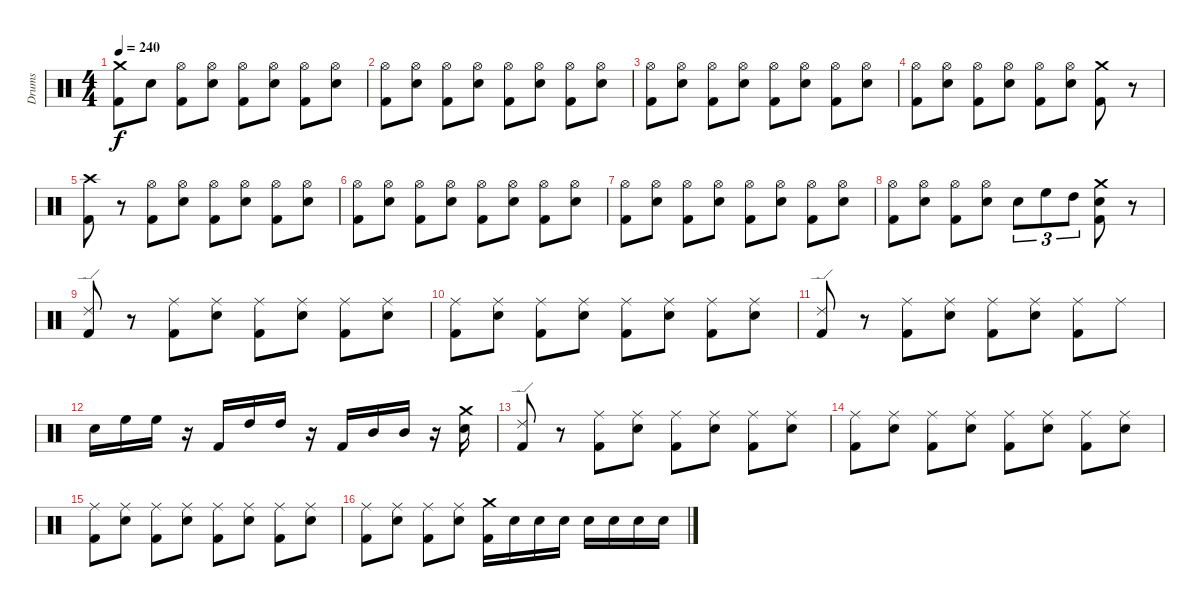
\track ("Drums" "Drums") {instrument percussion}
\staff {score}
\articulation defaults
\ts (4 4)
\tempo 240
\clef neutral
\ks c
("Crash medium (hit)" "Kick (hit) 2").8{dy f} "Snare (hit) 2".8 ("Hi-Hat (open)" "Kick (hit) 2").8 ("Hi-Hat (open)" "Snare (hit) 2").8 ("Hi-Hat (open)" "Kick (hit) 2").8 ("Hi-Hat (open)" "Snare (hit) 2").8 ("Hi-Hat (open)" "Kick (hit) 2").8 ("Hi-Hat (open)" "Snare (hit) 2").8 |
("Hi-Hat (open)" "Kick (hit) 2").8 ("Hi-Hat (open)" "Snare (hit) 2").8 ("Hi-Hat (open)" "Kick (hit) 2").8 ("Hi-Hat (open)" "Snare (hit) 2").8 ("Hi-Hat (open)" "Kick (hit) 2").8 ("Hi-Hat (open)" "Snare (hit) 2").8 ("Hi-Hat (open)" "Kick (hit) 2").8 ("Hi-Hat (open)" "Snare (hit) 2").8 |
("Hi-Hat (open)" "Kick (hit) 2").8 ("Hi-Hat (open)" "Snare (hit) 2").8 ("Hi-Hat (open)" "Kick (hit) 2").8 ("Hi-Hat (open)" "Snare (hit) 2").8 ("Hi-Hat (open)" "Kick (hit) 2").8 ("Hi-Hat (open)" "Snare (hit) 2").8 ("Hi-Hat (open)" "Kick (hit) 2").8 ("Hi-Hat (open)" "Snare (hit) 2").8 |
("Hi-Hat (open)" "Kick (hit) 2").8 ("Hi-Hat (open)" "Snare (hit) 2").8 ("Hi-Hat (open)" "Kick (hit) 2").8 ("Hi-Hat (open)" "Snare (hit) 2").8 ("Hi-Hat (open)" "Kick (hit) 2").8 ("Hi-Hat (open)" "Snare (hit) 2").8 ("Crash medium (hit)" "Kick (hit) 2").8 r.8 |
("Crash high (hit)" "Kick (hit) 2").8 r.8 ("Hi-Hat (open)" "Kick (hit) 2").8 ("Hi-Hat (open)" "Snare (hit) 2").8 ("Hi-Hat (open)" "Kick (hit) 2").8 ("Hi-Hat (open)" "Snare (hit) 2").8 ("Hi-Hat (open)" "Kick (hit) 2").8 ("Hi-Hat (open)" "Snare (hit) 2").8 |
("Hi-Hat (open)" "Kick (hit) 2").8 ("Hi-Hat (open)" "Snare (hit) 2").8 ("Hi-Hat (open)" "Kick (hit) 2").8 ("Hi-Hat (open)" "Snare (hit) 2").8 ("Hi-Hat (open)" "Kick (hit) 2").8 ("Hi-Hat (open)" "Snare (hit) 2").8 ("Hi-Hat (open)" "Kick (hit) 2").8 ("Hi-Hat (open)" "Snare (hit) 2").8 |
("Hi-Hat (open)" "Kick (hit) 2").8 ("Hi-Hat (open)" "Snare (hit) 2").8 ("Hi-Hat (open)" "Kick (hit) 2").8 ("Hi-Hat (open)" "Snare (hit) 2").8 ("Hi-Hat (open)" "Kick (hit) 2").8 ("Hi-Hat (open)" "Snare (hit) 2").8 ("Hi-Hat (open)" "Kick (hit) 2").8 ("Hi-Hat (open)" "Snare (hit) 2").8 |
("Hi-Hat (open)" "Kick (hit) 2").8 ("Hi-Hat (open)" "Snare (hit) 2").8 ("Hi-Hat (open)" "Kick (hit) 2").8 ("Hi-Hat (open)" "Snare (hit) 2").8 "Snare (hit) 2".8{tu (3 2)} "High Floor Tom (hit)".8{tu (3 2)} "High Tom (hit)".8{tu (3 2)} ("Crash medium (hit)" "Snare (hit) 2" "Kick (hit) 2").8 r.8 |
("Ride (edge) 2" "Kick (hit) 2").8 r.8 ("Ride (middle)" "Kick (hit) 2").8 ("Ride (middle)" "Snare (hit) 2").8 ("Ride (middle)" "Kick (hit) 2").8 ("Ride (middle)" "Snare (hit) 2").8 ("Ride (middle)" "Kick (hit) 2").8 ("Ride (middle)" "Snare (hit) 2").8 |
("Ride (middle)" "Kick (hit) 2").8 ("Ride (middle)" "Snare (hit) 2").8 ("Ride (middle)" "Kick (hit) 2").8 ("Ride (middle)" "Snare (hit) 2").8 ("Ride (middle)" "Kick (hit) 2").8 ("Ride (middle)" "Snare (hit) 2").8 ("Ride (middle)" "Kick (hit) 2").8 ("Ride (middle)" "Snare (hit) 2").8 |
("Ride (edge) 2" "Kick (hit) 2").8 r.8 ("Ride (middle)" "Kick (hit) 2").8 ("Ride (middle)" "Snare (hit) 2").8 ("Ride (middle)" "Kick (hit) 2").8 ("Ride (middle)" "Snare (hit) 2").8 ("Ride (middle)" "Kick (hit) 2").8 "Ride (middle)".8 |
"Snare (hit) 2".16 "High Floor Tom (hit)".16 "High Floor Tom (hit)".16 r.16 "Kick (hit) 2".16 "High Tom (hit)".16 "High Tom (hit)".16 r.16 "Kick (hit) 2".16 "Mid Tom (hit)".16 "Mid Tom (hit)".16 r.16 ("Crash medium (hit)" "Snare (hit) 2").16 |
("Ride (edge) 2" "Kick (hit) 2").8 r.8 ("Ride (middle)" "Kick (hit) 2").8 ("Ride (middle)" "Snare (hit) 2").8 ("Ride (middle)" "Kick (hit) 2").8 ("Ride (middle)" "Snare (hit) 2").8 ("Ride (middle)" "Kick (hit) 2").8 ("Ride (middle)" "Snare (hit) 2").8 |
("Ride (middle)" "Kick (hit) 2").8 ("Ride (middle)" "Snare (hit) 2").8 ("Ride (middle)" "Kick (hit) 2").8 ("Ride (middle)" "Snare (hit) 2").8 ("Ride (middle)" "Kick (hit) 2").8 ("Ride (middle)" "Snare (hit) 2").8 ("Ride (middle)" "Kick (hit) 2").8 ("Ride (middle)" "Snare (hit) 2").8 |
("Ride (middle)" "Kick (hit) 2").8 ("Ride (middle)" "Snare (hit) 2").8 ("Ride (middle)" "Kick (hit) 2").8 ("Ride (middle)" "Snare (hit) 2").8 ("Ride (middle)" "Kick (hit) 2").8 ("Ride (middle)" "Snare (hit) 2").8 ("Ride (middle)" "Kick (hit) 2").8 ("Ride (middle)" "Snare (hit) 2").8 |
("Ride (middle)" "Kick (hit) 2").8 ("Ride (middle)" "Snare (hit) 2").8 ("Ride (middle)" "Kick (hit) 2").8 ("Ride (middle)" "Snare (hit) 2").8 ("Crash medium (hit)" "Kick (hit) 2").16 "Snare (hit) 2".16 "Snare (hit) 2".16 "Snare (hit) 2".16 "Snare (hit) 2".16 "Snare (hit) 2".16 "Snare (hit) 2".16 "Snare (hit) 2".16
